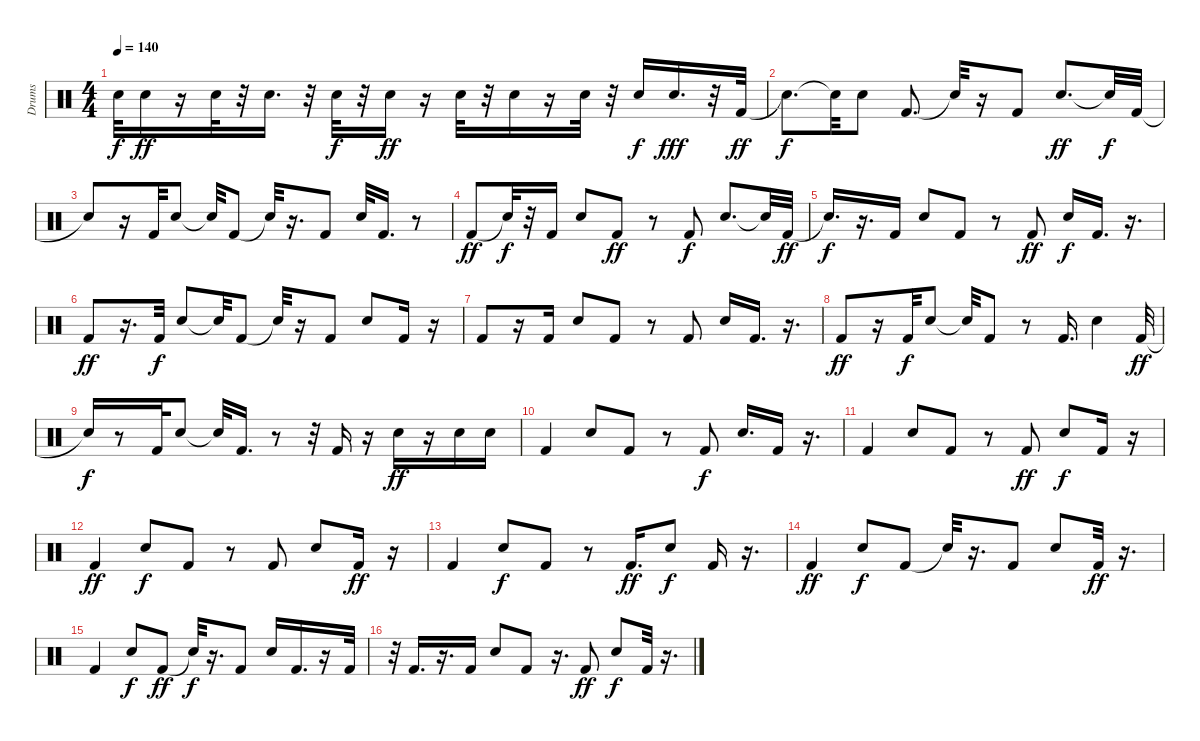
\track ("Drums" "Drums") {instrument percussion}
\staff {score}
\articulation defaults
\ts (4 4)
\tempo 140
\clef neutral
\ks c "Snare (hit)"{t}.32{dy f} "Snare (hit) 2".16{dy ff}
r.16 "Snare (hit) 2".32 r.32 "Snare (hit) 2".16{d} r.32 "Electric Snare (hit)".32{dy f} r.32 "Snare (hit) 2".16{dy ff} r.16 "Snare (hit) 2".32 r.32 "Snare (hit) 2".16 r.16 "Snare (hit) 2".32 r.32 "Snare (hit) 2".16{dy f} "Snare (hit) 2".16{d dy fff} r.32 "Kick (hit) 2".32{dy ff} |
"Snare (hit)"{t}.8{d dy f} "Snare (hit)"{t}.32 "Snare (hit) 2".8 "Kick (hit) 2".8{d} "Snare (hit)"{t}.32 r.16 "Kick (hit) 2".8 "Snare (hit) 2".8{d dy ff} "Snare (hit)"{t}.32{dy f} "Kick (hit) 2".32 |
"Snare (hit)"{t}.8 r.16 "Kick (hit) 2".32 "Snare (hit) 2".8 "Snare (hit)"{t}.32 "Kick (hit) 2".8 "Snare (hit)"{t}.32 r.16{d} "Kick (hit) 2".8 "Snare (hit) 2".32 "Kick (hit) 2".16{d} r.8 |
"Kick (hit) 2".8{dy ff} "Snare (hit)"{t}.32{dy f} r.32 "Kick (hit) 2".16 "Snare (hit) 2".8 "Kick (hit) 2".8{dy ff} r.8 "Kick (hit) 2".8{dy f} "Snare (hit) 2".8{d} "Snare (hit)"{t}.32 "Kick (hit) 2".32{dy ff} |
"Snare (hit)"{t}.16{d dy f} r.16{d} "Kick (hit) 2".16 "Snare (hit) 2".8 "Kick (hit) 2".8 r.8 "Kick (hit) 2".8{dy ff} "Snare (hit) 2".16{dy f} "Kick (hit) 2".16{d} r.16{d} |
"Kick (hit) 2".8{dy ff} r.16{d} "Kick (hit) 2".32{dy f} "Snare (hit) 2".8 "Snare (hit)"{t}.32 "Kick (hit) 2".8 "Snare (hit)"{t}.32 r.16 "Kick (hit) 2".8 "Snare (hit) 2".8 "Kick (hit) 2".16 r.16 |
"Kick (hit) 2".8 r.16 "Kick (hit) 2".16 "Snare (hit) 2".8 "Kick (hit) 2".8 r.8 "Kick (hit) 2".8 "Snare (hit) 2".16 "Kick (hit) 2".16{d} r.16{d} |
"Kick (hit) 2".8{dy ff} r.16 "Kick (hit) 2".32{dy f} "Snare (hit) 2".8 "Snare (hit)"{t}.32 "Kick (hit) 2".8 r.8 "Kick (hit) 2".16{d} "Snare (hit) 2".4 "Kick (hit) 2".32{dy ff} |
"Snare (hit)"{t}.16{dy f} r.8 "Kick (hit) 2".32 "Snare (hit) 2".8 "Snare (hit)"{t}.32 "Kick (hit) 2".16{d} r.8 r.32 "Kick (hit) 2".16 r.16 "Snare (hit) 2".16{dy ff} r.16 "Snare (hit) 2".16 "Snare (hit) 2".16 |
"Kick (hit) 2".4 "Snare (hit) 2".8 "Kick (hit) 2".8 r.8 "Kick (hit) 2".8{dy f} "Snare (hit) 2".16{d} "Kick (hit) 2".16 r.16{d} |
"Kick (hit) 2".4 "Snare (hit) 2".8 "Kick (hit) 2".8 r.8 "Kick (hit) 2".8{dy ff} "Snare (hit) 2".8{dy f} "Kick (hit) 2".16 r.16 |
"Kick (hit) 2".4{dy ff} "Snare (hit) 2".8{dy f} "Kick (hit) 2".8 r.8 "Kick (hit) 2".8 "Snare (hit) 2".8 "Kick (hit) 2".16{dy ff} r.16 |
"Kick (hit) 2".4 "Snare (hit) 2".8{dy f} "Kick (hit) 2".8 r.8 "Kick (hit) 2".16{d dy ff} "Snare (hit) 2".8{dy f} "Kick (hit) 2".16 r.16{d} |
"Kick (hit) 2".4{dy ff} "Snare (hit) 2".8{dy f} "Kick (hit) 2".8 "Snare (hit)"{t}.32 r.16{d} "Kick (hit) 2".8 "Snare (hit) 2".8 "Kick (hit) 2".32{dy ff} r.16{d} |
"Kick (hit) 2".4 "Snare (hit) 2".8{dy f} "Kick (hit) 2".8{dy ff} "Snare (hit)"{t}.32{dy f} r.16{d} "Kick (hit) 2".8 "Snare (hit) 2".16 "Kick (hit) 2".16{d} r.16 "Kick (hit) 2".32 |
r.32 "Kick (hit) 2".16{d} r.16{d} "Kick (hit) 2".16 "Snare (hit) 2".8 "Kick (hit) 2".8 r.16{d} "Kick (hit) 2".8{dy ff} "Snare (hit) 2".8{dy f} "Kick (hit) 2".32 r.16{d}
